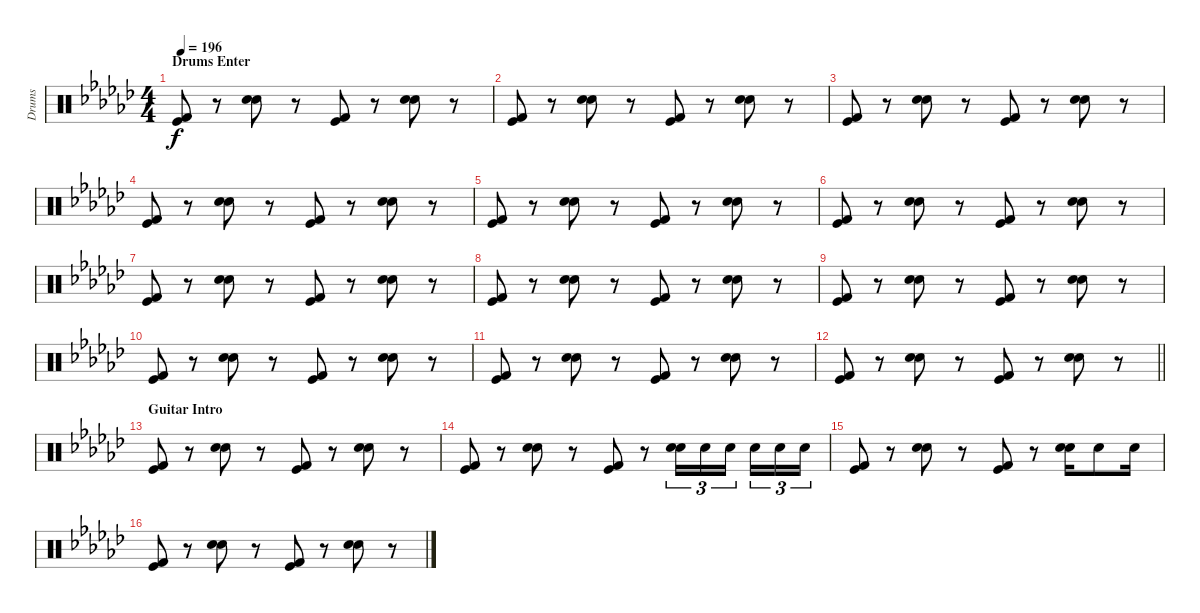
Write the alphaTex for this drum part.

\track ("Drums" "Drums") {instrument percussion}
\staff {score}
\articulation defaults
\ts (4 4)
\section ("" "Drums Enter")
\tempo 196
\clef neutral
\ks gb
("Kick (hit) 2" "Kick (hit)").8{dy f} r.8 ("Snare (hit) 2" "Electric Snare (hit)").8 r.8 ("Kick (hit) 2" "Kick (hit)").8 r.8 ("Snare (hit) 2" "Electric Snare (hit)").8 r.8 |
("Kick (hit) 2" "Kick (hit)").8 r.8 ("Snare (hit) 2" "Electric Snare (hit)").8 r.8 ("Kick (hit) 2" "Kick (hit)").8 r.8 ("Snare (hit) 2" "Electric Snare (hit)").8 r.8 |
("Kick (hit) 2" "Kick (hit)").8 r.8 ("Snare (hit) 2" "Electric Snare (hit)").8 r.8 ("Kick (hit) 2" "Kick (hit)").8 r.8 ("Snare (hit) 2" "Electric Snare (hit)").8 r.8 |
("Kick (hit) 2" "Kick (hit)").8 r.8 ("Snare (hit) 2" "Electric Snare (hit)").8 r.8 ("Kick (hit) 2" "Kick (hit)").8 r.8 ("Snare (hit) 2" "Electric Snare (hit)").8 r.8 |
("Kick (hit) 2" "Kick (hit)").8 r.8 ("Snare (hit) 2" "Electric Snare (hit)").8 r.8 ("Kick (hit) 2" "Kick (hit)").8 r.8 ("Snare (hit) 2" "Electric Snare (hit)").8 r.8 |
("Kick (hit) 2" "Kick (hit)").8 r.8 ("Snare (hit) 2" "Electric Snare (hit)").8 r.8 ("Kick (hit) 2" "Kick (hit)").8 r.8 ("Snare (hit) 2" "Electric Snare (hit)").8 r.8 |
("Kick (hit) 2" "Kick (hit)").8 r.8 ("Snare (hit) 2" "Electric Snare (hit)").8 r.8 ("Kick (hit) 2" "Kick (hit)").8 r.8 ("Snare (hit) 2" "Electric Snare (hit)").8 r.8 |
("Kick (hit) 2" "Kick (hit)").8 r.8 ("Snare (hit) 2" "Electric Snare (hit)").8 r.8 ("Kick (hit) 2" "Kick (hit)").8 r.8 ("Snare (hit) 2" "Electric Snare (hit)").8 r.8 |
("Kick (hit) 2" "Kick (hit)").8 r.8 ("Snare (hit) 2" "Electric Snare (hit)").8 r.8 ("Kick (hit) 2" "Kick (hit)").8 r.8 ("Snare (hit) 2" "Electric Snare (hit)").8 r.8 |
("Kick (hit) 2" "Kick (hit)").8 r.8 ("Snare (hit) 2" "Electric Snare (hit)").8 r.8 ("Kick (hit) 2" "Kick (hit)").8 r.8 ("Snare (hit) 2" "Electric Snare (hit)").8 r.8 |
("Kick (hit) 2" "Kick (hit)").8 r.8 ("Snare (hit) 2" "Electric Snare (hit)").8 r.8 ("Kick (hit) 2" "Kick (hit)").8 r.8 ("Snare (hit) 2" "Electric Snare (hit)").8 r.8 |
\barLineRight lightlight
("Kick (hit) 2" "Kick (hit)").8 r.8 ("Snare (hit) 2" "Electric Snare (hit)").8 r.8 ("Kick (hit) 2" "Kick (hit)").8 r.8 ("Snare (hit) 2" "Electric Snare (hit)").8 r.8 |
\section ("" "Guitar Intro")
("Kick (hit) 2" "Kick (hit)").8 r.8 ("Snare (hit) 2" "Electric Snare (hit)").8 r.8 ("Kick (hit) 2" "Kick (hit)").8 r.8 ("Snare (hit) 2" "Electric Snare (hit)").8 r.8 |
("Kick (hit) 2" "Kick (hit)").8 r.8 ("Snare (hit) 2" "Electric Snare (hit)").8 r.8 ("Kick (hit) 2" "Kick (hit)").8 r.8 ("Hand Clap (hit)" "Electric Snare (hit)").16{tu (3 2)} "Hand Clap (hit)".16{tu (3 2)} "Hand Clap (hit)".16{tu (3 2) beam splitsecondary} "Hand Clap (hit)".16{tu (3 2)} "Hand Clap (hit)".16{tu (3 2)} "Hand Clap (hit)".16{tu (3 2)} |
("Kick (hit) 2" "Kick (hit)").8 r.8 ("Snare (hit) 2" "Electric Snare (hit)").8 r.8 ("Kick (hit) 2" "Kick (hit)").8 r.8 ("Snare (hit) 2" "Electric Snare (hit)").16 "Hand Clap (hit)".8 "Hand Clap (hit)".16 |
("Kick (hit) 2" "Kick (hit)").8 r.8 ("Snare (hit) 2" "Electric Snare (hit)").8 r.8 ("Kick (hit) 2" "Kick (hit)").8 r.8 ("Snare (hit) 2" "Electric Snare (hit)").8 r.8
